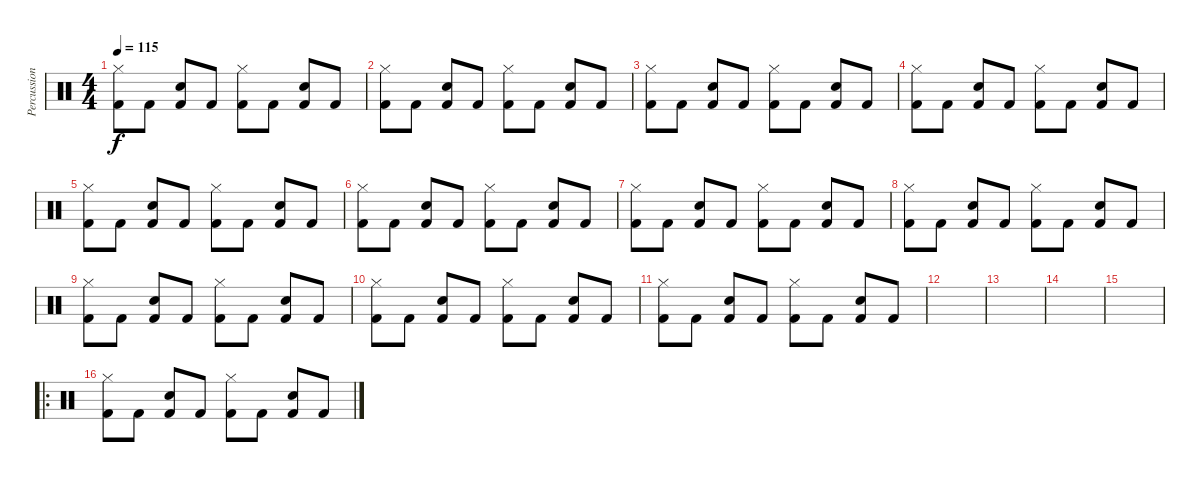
\track ("Percussion" "Percussion") {instrument percussion}
\staff {score}
\articulation defaults
\ts (4 4)
\tempo 115
\clef neutral
\ks c
("Kick (hit) 2" "Hi-Hat (closed)").8{dy f} "Kick (hit) 2".8 ("Kick (hit) 2" "Snare (hit) 2").8 "Kick (hit) 2".8 ("Kick (hit) 2" "Hi-Hat (closed)").8 "Kick (hit) 2".8 ("Kick (hit) 2" "Snare (hit) 2").8 "Kick (hit) 2".8 |
("Kick (hit) 2" "Hi-Hat (closed)").8 "Kick (hit) 2".8 ("Kick (hit) 2" "Snare (hit) 2").8 "Kick (hit) 2".8 ("Kick (hit) 2" "Hi-Hat (closed)").8 "Kick (hit) 2".8 ("Kick (hit) 2" "Snare (hit) 2").8 "Kick (hit) 2".8 |
("Kick (hit) 2" "Hi-Hat (closed)").8 "Kick (hit) 2".8 ("Kick (hit) 2" "Snare (hit) 2").8 "Kick (hit) 2".8 ("Kick (hit) 2" "Hi-Hat (closed)").8 "Kick (hit) 2".8 ("Kick (hit) 2" "Snare (hit) 2").8 "Kick (hit) 2".8 |
("Kick (hit) 2" "Hi-Hat (closed)").8 "Kick (hit) 2".8 ("Kick (hit) 2" "Snare (hit) 2").8 "Kick (hit) 2".8 ("Kick (hit) 2" "Hi-Hat (closed)").8 "Kick (hit) 2".8 ("Kick (hit) 2" "Snare (hit) 2").8 "Kick (hit) 2".8 |
("Kick (hit) 2" "Hi-Hat (closed)").8 "Kick (hit) 2".8 ("Kick (hit) 2" "Snare (hit) 2").8 "Kick (hit) 2".8 ("Kick (hit) 2" "Hi-Hat (closed)").8 "Kick (hit) 2".8 ("Kick (hit) 2" "Snare (hit) 2").8 "Kick (hit) 2".8 |
("Kick (hit) 2" "Hi-Hat (closed)").8 "Kick (hit) 2".8 ("Kick (hit) 2" "Snare (hit) 2").8 "Kick (hit) 2".8 ("Kick (hit) 2" "Hi-Hat (closed)").8 "Kick (hit) 2".8 ("Kick (hit) 2" "Snare (hit) 2").8 "Kick (hit) 2".8 |
("Kick (hit) 2" "Hi-Hat (closed)").8 "Kick (hit) 2".8 ("Kick (hit) 2" "Snare (hit) 2").8 "Kick (hit) 2".8 ("Kick (hit) 2" "Hi-Hat (closed)").8 "Kick (hit) 2".8 ("Kick (hit) 2" "Snare (hit) 2").8 "Kick (hit) 2".8 |
("Kick (hit) 2" "Hi-Hat (closed)").8 "Kick (hit) 2".8 ("Kick (hit) 2" "Snare (hit) 2").8 "Kick (hit) 2".8 ("Kick (hit) 2" "Hi-Hat (closed)").8 "Kick (hit) 2".8 ("Kick (hit) 2" "Snare (hit) 2").8 "Kick (hit) 2".8 |
("Kick (hit) 2" "Hi-Hat (closed)").8 "Kick (hit) 2".8 ("Kick (hit) 2" "Snare (hit) 2").8 "Kick (hit) 2".8 ("Kick (hit) 2" "Hi-Hat (closed)").8 "Kick (hit) 2".8 ("Kick (hit) 2" "Snare (hit) 2").8 "Kick (hit) 2".8 |
("Kick (hit) 2" "Hi-Hat (closed)").8 "Kick (hit) 2".8 ("Kick (hit) 2" "Snare (hit) 2").8 "Kick (hit) 2".8 ("Kick (hit) 2" "Hi-Hat (closed)").8 "Kick (hit) 2".8 ("Kick (hit) 2" "Snare (hit) 2").8 "Kick (hit) 2".8 |
("Kick (hit) 2" "Hi-Hat (closed)").8 "Kick (hit) 2".8 ("Kick (hit) 2" "Snare (hit) 2").8 "Kick (hit) 2".8 ("Kick (hit) 2" "Hi-Hat (closed)").8 "Kick (hit) 2".8 ("Kick (hit) 2" "Snare (hit) 2").8 "Kick (hit) 2".8 |
|
|
|
|
\ro
("Kick (hit) 2" "Hi-Hat (closed)").8 "Kick (hit) 2".8 ("Kick (hit) 2" "Snare (hit) 2").8 "Kick (hit) 2".8 ("Kick (hit) 2" "Hi-Hat (closed)").8 "Kick (hit) 2".8 ("Kick (hit) 2" "Snare (hit) 2").8 "Kick (hit) 2".8
